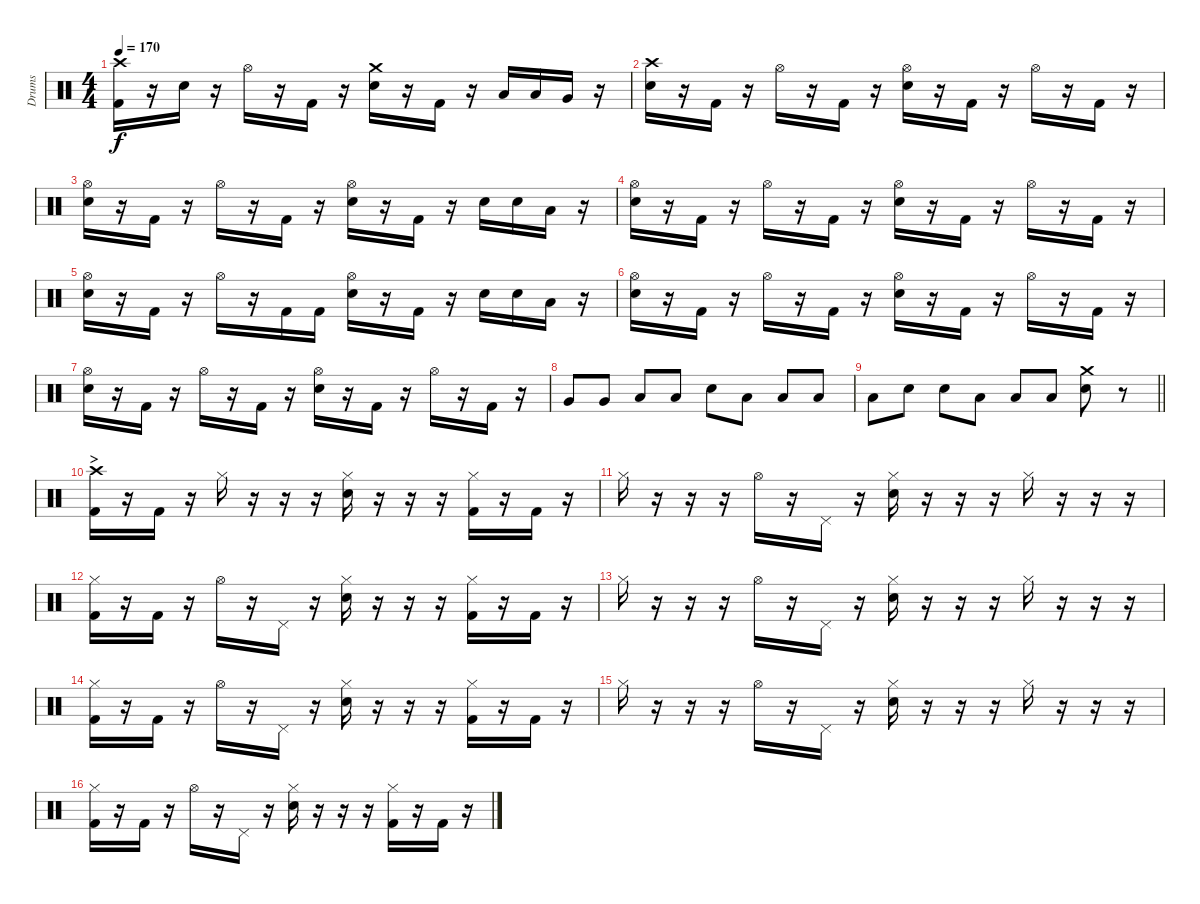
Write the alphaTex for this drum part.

\track ("Drums" "Drums") {instrument percussion}
\staff {score}
\articulation defaults
\ts (4 4)
\tempo 170
\clef neutral
\ks c
("Crash high (hit)" "Kick (hit) 2").16{dy f} r.16 "Electric Snare (hit)".16 r.16 "Hi-Hat (open)".16 r.16 "Kick (hit) 2".16 r.16 ("Crash medium (hit)" "Electric Snare (hit)").16 r.16 "Kick (hit) 2".16 r.16 "Low Tom (hit)".16 "Low Tom (hit)".16 "Very Low Tom (hit)".16 r.16 |
("Crash high (hit)" "Electric Snare (hit)").16 r.16 "Kick (hit) 2".16 r.16 "Hi-Hat (open)".16 r.16 "Kick (hit) 2".16 r.16 ("Hi-Hat (open)" "Electric Snare (hit)").16 r.16 "Kick (hit) 2".16 r.16 "Hi-Hat (open)".16 r.16 "Kick (hit) 2".16 r.16 |
("Hi-Hat (open)" "Electric Snare (hit)").16 r.16 "Kick (hit) 2".16 r.16 "Hi-Hat (open)".16 r.16 "Kick (hit) 2".16 r.16 ("Hi-Hat (open)" "Electric Snare (hit)").16 r.16 "Kick (hit) 2".16 r.16 "Electric Snare (hit)".16 "Electric Snare (hit)".16 "Low Tom (hit)".16 r.16 |
("Hi-Hat (open)" "Electric Snare (hit)").16 r.16 "Kick (hit) 2".16 r.16 "Hi-Hat (open)".16 r.16 "Kick (hit) 2".16 r.16 ("Hi-Hat (open)" "Electric Snare (hit)").16 r.16 "Kick (hit) 2".16 r.16 "Hi-Hat (open)".16 r.16 "Kick (hit) 2".16 r.16 |
("Hi-Hat (open)" "Electric Snare (hit)").16 r.16 "Kick (hit) 2".16 r.16 "Hi-Hat (open)".16 r.16 "Kick (hit) 2".16 "Kick (hit) 2".16 ("Hi-Hat (open)" "Electric Snare (hit)").16 r.16 "Kick (hit) 2".16 r.16 "Electric Snare (hit)".16 "Electric Snare (hit)".16 "Low Tom (hit)".16 r.16 |
("Hi-Hat (open)" "Electric Snare (hit)").16 r.16 "Kick (hit) 2".16 r.16 "Hi-Hat (open)".16 r.16 "Kick (hit) 2".16 r.16 ("Hi-Hat (open)" "Electric Snare (hit)").16 r.16 "Kick (hit) 2".16 r.16 "Hi-Hat (open)".16 r.16 "Kick (hit) 2".16 r.16 |
("Hi-Hat (open)" "Electric Snare (hit)").16 r.16 "Kick (hit) 2".16 r.16 "Hi-Hat (open)".16 r.16 "Kick (hit) 2".16 r.16 ("Hi-Hat (open)" "Electric Snare (hit)").16 r.16 "Kick (hit) 2".16 r.16 "Hi-Hat (open)".16 r.16 "Kick (hit) 2".16 r.16 |
"Very Low Tom (hit)".8 "Very Low Tom (hit)".8 "Low Tom (hit)".8 "Low Tom (hit)".8 "Electric Snare (hit)".8 "Low Tom (hit)".8 "Low Tom (hit)".8 "Low Tom (hit)".8 |
\barLineRight lightlight "Low Tom (hit)".8 "Electric Snare (hit)".8 "Electric Snare (hit)".8 "Low Tom (hit)".8 "Low Tom (hit)".8 "Low Tom (hit)".8
("Crash medium (hit)" "Electric Snare (hit)").8 r.8 |
\section ("" ">")
("Crash high (hit)" "Kick (hit) 2").16 r.16 "Kick (hit) 2".16 r.16 "Hi-Hat (closed)".16 r.16 r.16 r.16 ("Hi-Hat (closed)" "Electric Snare (hit)").16 r.16 r.16 r.16 ("Hi-Hat (closed)" "Kick (hit) 2").16 r.16 "Kick (hit) 2".16 r.16 |
"Hi-Hat (closed)".16 r.16 r.16 r.16 "Hi-Hat (open)".16 r.16 "Pedal Hi-Hat (hit)".16 r.16 ("Hi-Hat (closed)" "Electric Snare (hit)").16 r.16 r.16 r.16 "Hi-Hat (closed)".16 r.16 r.16 r.16 |
("Hi-Hat (closed)" "Kick (hit) 2").16 r.16 "Kick (hit) 2".16 r.16 "Hi-Hat (open)".16 r.16 "Pedal Hi-Hat (hit)".16 r.16 ("Hi-Hat (closed)" "Electric Snare (hit)").16 r.16 r.16 r.16 ("Hi-Hat (closed)" "Kick (hit) 2").16 r.16 "Kick (hit) 2".16 r.16 |
"Hi-Hat (closed)".16 r.16 r.16 r.16 "Hi-Hat (open)".16 r.16 "Pedal Hi-Hat (hit)".16 r.16 ("Hi-Hat (closed)" "Electric Snare (hit)").16 r.16 r.16 r.16 "Hi-Hat (closed)".16 r.16 r.16 r.16 |
("Hi-Hat (closed)" "Kick (hit) 2").16 r.16 "Kick (hit) 2".16 r.16 "Hi-Hat (open)".16 r.16 "Pedal Hi-Hat (hit)".16 r.16 ("Hi-Hat (closed)" "Electric Snare (hit)").16 r.16 r.16 r.16 ("Hi-Hat (closed)" "Kick (hit) 2").16 r.16 "Kick (hit) 2".16 r.16 |
"Hi-Hat (closed)".16 r.16 r.16 r.16 "Hi-Hat (open)".16 r.16 "Pedal Hi-Hat (hit)".16 r.16 ("Hi-Hat (closed)" "Electric Snare (hit)").16 r.16 r.16 r.16 "Hi-Hat (closed)".16 r.16 r.16 r.16 |
("Hi-Hat (closed)" "Kick (hit) 2").16 r.16 "Kick (hit) 2".16 r.16 "Hi-Hat (open)".16 r.16 "Pedal Hi-Hat (hit)".16 r.16 ("Hi-Hat (closed)" "Electric Snare (hit)").16 r.16 r.16 r.16 ("Hi-Hat (closed)" "Kick (hit) 2").16 r.16 "Kick (hit) 2".16 r.16
